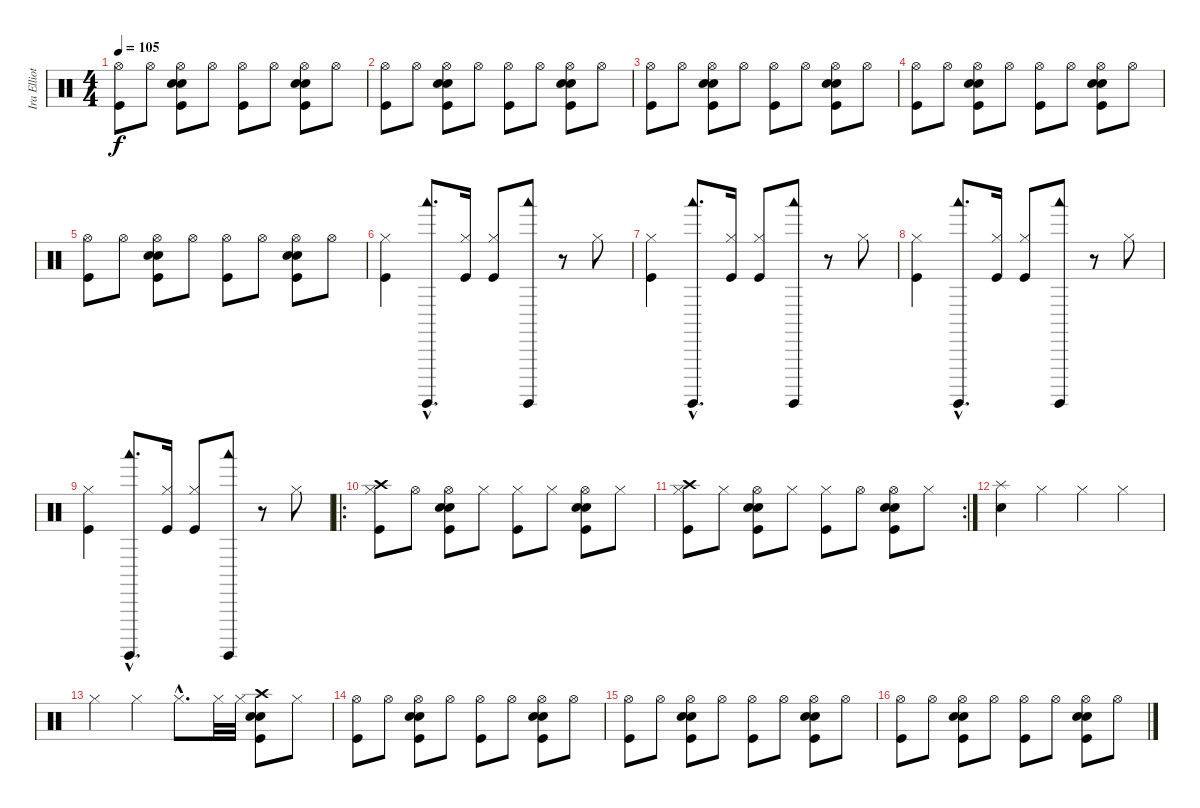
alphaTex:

\track ("Ira Elliot" "Ira Elliot") {instrument percussion}
\staff {score}
\articulation defaults
\ts (4 4)
\tempo 105
\clef neutral
\ks c
("Hi-Hat (open)" "Kick (hit)").8{dy f} "Hi-Hat (open)".8 ("Electric Snare (hit)" "Hi-Hat (open)" "Snare (hit) 2" "Kick (hit)").8 "Hi-Hat (open)".8 ("Hi-Hat (open)" "Kick (hit)").8 "Hi-Hat (open)".8 ("Electric Snare (hit)" "Hi-Hat (open)" "Snare (hit) 2" "Kick (hit)").8 "Hi-Hat (open)".8 |
("Hi-Hat (open)" "Kick (hit)").8 "Hi-Hat (open)".8 ("Electric Snare (hit)" "Hi-Hat (open)" "Snare (hit) 2" "Kick (hit)").8 "Hi-Hat (open)".8 ("Hi-Hat (open)" "Kick (hit)").8 "Hi-Hat (open)".8 ("Electric Snare (hit)" "Hi-Hat (open)" "Snare (hit) 2" "Kick (hit)").8 "Hi-Hat (open)".8 |
("Hi-Hat (open)" "Kick (hit)").8 "Hi-Hat (open)".8 ("Electric Snare (hit)" "Hi-Hat (open)" "Snare (hit) 2" "Kick (hit)").8 "Hi-Hat (open)".8 ("Hi-Hat (open)" "Kick (hit)").8 "Hi-Hat (open)".8 ("Electric Snare (hit)" "Hi-Hat (open)" "Snare (hit) 2" "Kick (hit)").8 "Hi-Hat (open)".8 |
("Hi-Hat (open)" "Kick (hit)").8 "Hi-Hat (open)".8 ("Electric Snare (hit)" "Hi-Hat (open)" "Snare (hit) 2" "Kick (hit)").8 "Hi-Hat (open)".8 ("Hi-Hat (open)" "Kick (hit)").8 "Hi-Hat (open)".8 ("Electric Snare (hit)" "Hi-Hat (open)" "Snare (hit) 2" "Kick (hit)").8 "Hi-Hat (open)".8 |
("Hi-Hat (open)" "Kick (hit)").8 "Hi-Hat (open)".8 ("Electric Snare (hit)" "Hi-Hat (open)" "Snare (hit) 2" "Kick (hit)").8 "Hi-Hat (open)".8 ("Hi-Hat (open)" "Kick (hit)").8 "Hi-Hat (open)".8 ("Electric Snare (hit)" "Hi-Hat (open)" "Snare (hit) 2" "Kick (hit)").8 "Hi-Hat (open)".8 |
("Hi-Hat (closed)" "Kick (hit)").4 ("Woodblock low (hit)"{hac} "Surdo (hit)"{hac}).8{d} ("Hi-Hat (closed)" "Kick (hit)").16 ("Hi-Hat (closed)" "Kick (hit)").8 ("Woodblock low (hit)" "Surdo (hit)").8 r.8 "Hi-Hat (closed)".8 |
("Hi-Hat (closed)" "Kick (hit)").4 ("Woodblock low (hit)"{hac} "Surdo (hit)"{hac}).8{d} ("Hi-Hat (closed)" "Kick (hit)").16 ("Hi-Hat (closed)" "Kick (hit)").8 ("Woodblock low (hit)" "Surdo (hit)").8 r.8 "Hi-Hat (closed)".8 |
("Hi-Hat (closed)" "Kick (hit)").4 ("Woodblock low (hit)"{hac} "Surdo (hit)"{hac}).8{d} ("Hi-Hat (closed)" "Kick (hit)").16 ("Hi-Hat (closed)" "Kick (hit)").8 ("Woodblock low (hit)" "Surdo (hit)").8 r.8 "Hi-Hat (closed)".8 |
("Hi-Hat (closed)" "Kick (hit)").4 ("Woodblock low (hit)"{hac} "Surdo (hit)"{hac}).8{d} ("Hi-Hat (closed)" "Kick (hit)").16 ("Hi-Hat (closed)" "Kick (hit)").8 ("Woodblock low (hit)" "Surdo (hit)").8 r.8 "Hi-Hat (closed)".8 |
\ro
("Crash high (hit)" "Hi-Hat (closed)" "Kick (hit)").8 "Hi-Hat (open)".8 ("Electric Snare (hit)" "Hi-Hat (open)" "Snare (hit) 2" "Kick (hit)").8 "Hi-Hat (closed)".8 ("Hi-Hat (closed)" "Kick (hit)").8 "Hi-Hat (closed)".8 ("Electric Snare (hit)" "Hi-Hat (open)" "Snare (hit) 2" "Kick (hit)").8 "Hi-Hat (closed)".8 |
\rc 2
("Crash high (hit)" "Hi-Hat (closed)" "Kick (hit)").8 "Hi-Hat (closed)".8 ("Electric Snare (hit)" "Snare (hit) 2" "Hi-Hat (open)" "Kick (hit)").8 "Hi-Hat (closed)".8 ("Hi-Hat (closed)" "Kick (hit)").8 "Hi-Hat (open)".8 ("Electric Snare (hit)" "Snare (hit) 2" "Hi-Hat (open)" "Kick (hit)").8 "Hi-Hat (closed)".8 |
("Splash (hit)" "Electric Snare (hit)").4 "Hi-Hat (closed)".4 "Hi-Hat (closed)".4 "Hi-Hat (closed)".4 |
"Hi-Hat (closed)".4 "Hi-Hat (closed)".4 "Hi-Hat (closed)"{hac}.8{d} "Hi-Hat (closed)".32 "Hi-Hat (closed)".32 ("Electric Snare (hit)" "Snare (hit) 2" "Crash high (hit)" "Kick (hit)").8 "Hi-Hat (closed)".8 |
("Hi-Hat (open)" "Kick (hit)").8 "Hi-Hat (open)".8 ("Electric Snare (hit)" "Hi-Hat (open)" "Snare (hit) 2" "Kick (hit)").8 "Hi-Hat (open)".8 ("Hi-Hat (open)" "Kick (hit)").8 "Hi-Hat (open)".8 ("Electric Snare (hit)" "Hi-Hat (open)" "Snare (hit) 2" "Kick (hit)").8 "Hi-Hat (open)".8 |
("Hi-Hat (open)" "Kick (hit)").8 "Hi-Hat (open)".8 ("Electric Snare (hit)" "Hi-Hat (open)" "Snare (hit) 2" "Kick (hit)").8 "Hi-Hat (open)".8 ("Hi-Hat (open)" "Kick (hit)").8 "Hi-Hat (open)".8 ("Electric Snare (hit)" "Hi-Hat (open)" "Snare (hit) 2" "Kick (hit)").8 "Hi-Hat (open)".8 |
("Hi-Hat (open)" "Kick (hit)").8 "Hi-Hat (open)".8 ("Electric Snare (hit)" "Hi-Hat (open)" "Snare (hit) 2" "Kick (hit)").8 "Hi-Hat (open)".8 ("Hi-Hat (open)" "Kick (hit)").8 "Hi-Hat (open)".8 ("Electric Snare (hit)" "Hi-Hat (open)" "Snare (hit) 2" "Kick (hit)").8 "Hi-Hat (open)".8
